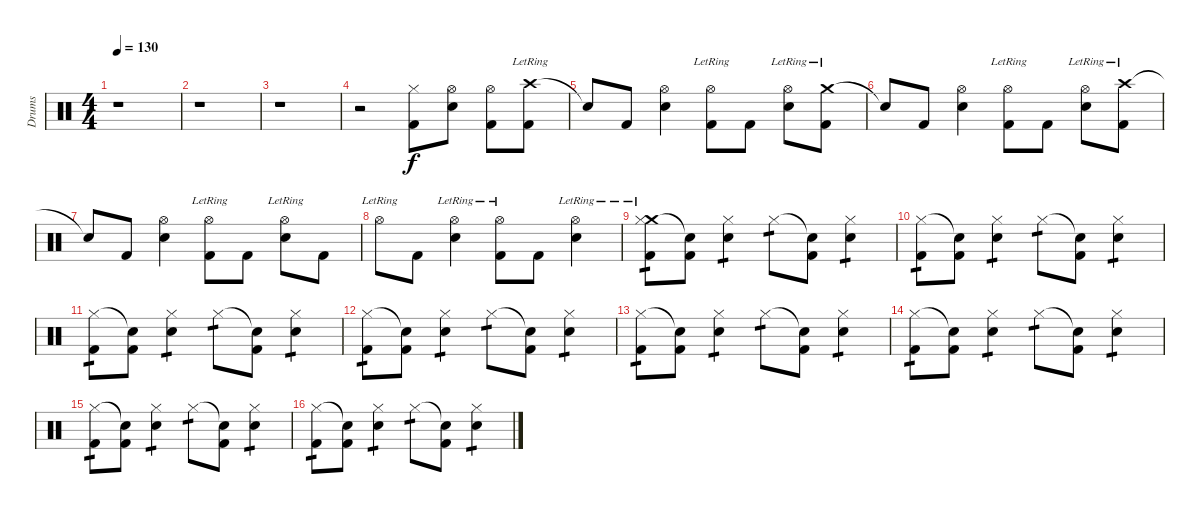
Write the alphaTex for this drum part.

\track ("Drums" "Drums") {instrument percussion}
\staff {score}
\articulation defaults
\ts (4 4)
\tempo 130
\clef neutral
\ks c
r.1{dy f} |
r.1 |
r.1 |
r.2 ("Hi-Hat (closed)" "Kick (hit) 2").8 ("Hi-Hat (open)" "Electric Snare (hit)").8 ("Hi-Hat (open)" "Kick (hit) 2").8 ("Crash high (hit)"{lr} "Kick (hit) 2").8 |
"Snare (hit)"{t}.8 "Kick (hit) 2".8 ("Hi-Hat (open)" "Electric Snare (hit)").4 ("Hi-Hat (open)"{lr} "Kick (hit) 2").8 "Kick (hit) 2".8 ("Hi-Hat (open)"{lr} "Electric Snare (hit)").8 ("Crash medium (hit)"{lr} "Kick (hit) 2").8 |
"Snare (hit)"{t}.8 "Kick (hit) 2".8 ("Hi-Hat (open)" "Electric Snare (hit)").4 ("Hi-Hat (open)"{lr} "Kick (hit) 2").8 "Kick (hit) 2".8 ("Hi-Hat (open)"{lr} "Electric Snare (hit)").8 ("Crash high (hit)"{lr} "Kick (hit) 2").8 |
"Snare (hit)"{t}.8 "Kick (hit) 2".8 ("Hi-Hat (open)" "Electric Snare (hit)").4 ("Hi-Hat (open)"{lr} "Kick (hit) 2").8 "Kick (hit) 2".8 ("Hi-Hat (open)"{lr} "Electric Snare (hit)").8 "Kick (hit) 2".8 |
"Hi-Hat (open)"{lr}.8 "Kick (hit) 2".8 ("Hi-Hat (open)"{lr} "Electric Snare (hit)").4 ("Hi-Hat (open)"{lr} "Kick (hit) 2").8 "Kick (hit) 2".8 ("Hi-Hat (open)"{lr} "Electric Snare (hit)").4 |
("Crash medium (hit)"{lr} "Hi-Hat (closed)" "Kick (hit) 2").8{tp 1} ("Snare (hit)"{t} "Kick (hit) 2").8 ("Hi-Hat (closed)" "Electric Snare (hit)").4{tp 1} "Hi-Hat (closed)".8{tp 1} ("Snare (hit)"{t} "Kick (hit) 2").8 ("Hi-Hat (closed)" "Electric Snare (hit)").4{tp 1} |
("Hi-Hat (closed)" "Kick (hit) 2").8{tp 1} ("Snare (hit)"{t} "Kick (hit) 2").8 ("Hi-Hat (closed)" "Electric Snare (hit)").4{tp 1} "Hi-Hat (closed)".8{tp 1} ("Snare (hit)"{t} "Kick (hit) 2").8 ("Hi-Hat (closed)" "Electric Snare (hit)").4{tp 1} |
("Hi-Hat (closed)" "Kick (hit) 2").8{tp 1} ("Snare (hit)"{t} "Kick (hit) 2").8 ("Hi-Hat (closed)" "Electric Snare (hit)").4{tp 1} "Hi-Hat (closed)".8{tp 1} ("Snare (hit)"{t} "Kick (hit) 2").8 ("Hi-Hat (closed)" "Electric Snare (hit)").4{tp 1} |
("Hi-Hat (closed)" "Kick (hit) 2").8{tp 1} ("Snare (hit)"{t} "Kick (hit) 2").8 ("Hi-Hat (closed)" "Electric Snare (hit)").4{tp 1} "Hi-Hat (closed)".8{tp 1} ("Snare (hit)"{t} "Kick (hit) 2").8 ("Hi-Hat (closed)" "Electric Snare (hit)").4{tp 1} |
("Hi-Hat (closed)" "Kick (hit) 2").8{tp 1} ("Snare (hit)"{t} "Kick (hit) 2").8 ("Hi-Hat (closed)" "Electric Snare (hit)").4{tp 1} "Hi-Hat (closed)".8{tp 1} ("Snare (hit)"{t} "Kick (hit) 2").8 ("Hi-Hat (closed)" "Electric Snare (hit)").4{tp 1} |
("Hi-Hat (closed)" "Kick (hit) 2").8{tp 1} ("Snare (hit)"{t} "Kick (hit) 2").8 ("Hi-Hat (closed)" "Electric Snare (hit)").4{tp 1} "Hi-Hat (closed)".8{tp 1} ("Snare (hit)"{t} "Kick (hit) 2").8 ("Hi-Hat (closed)" "Electric Snare (hit)").4{tp 1} |
("Hi-Hat (closed)" "Kick (hit) 2").8{tp 1} ("Snare (hit)"{t} "Kick (hit) 2").8 ("Hi-Hat (closed)" "Electric Snare (hit)").4{tp 1} "Hi-Hat (closed)".8{tp 1} ("Snare (hit)"{t} "Kick (hit) 2").8 ("Hi-Hat (closed)" "Electric Snare (hit)").4{tp 1} |
("Hi-Hat (closed)" "Kick (hit) 2").8{tp 1} ("Snare (hit)"{t} "Kick (hit) 2").8 ("Hi-Hat (closed)" "Electric Snare (hit)").4{tp 1} "Hi-Hat (closed)".8{tp 1} ("Snare (hit)"{t} "Kick (hit) 2").8 ("Hi-Hat (closed)" "Electric Snare (hit)").4{tp 1}
